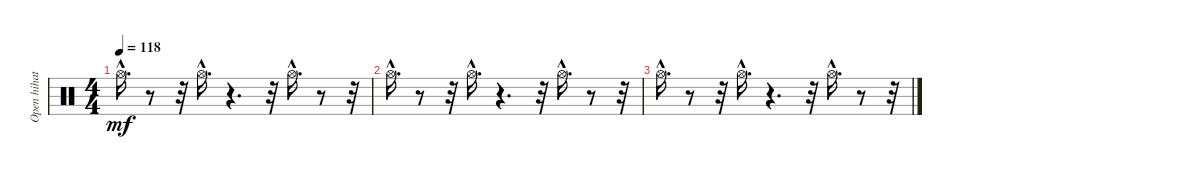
\track ("Open hihat          " "Open hihat") {instrument percussion}
\staff {score}
\articulation defaults
\ts (4 4)
\tempo 118
\clef neutral
\ks c "Hi-Hat (open)"{hac}.16{d dy mf}
r.8 r.32 "Hi-Hat (open)"{hac}.16{d} r.4{d} r.32 "Hi-Hat (open)"{hac}.16{d} r.8 r.32 |
"Hi-Hat (open)"{hac}.16{d} r.8 r.32 "Hi-Hat (open)"{hac}.16{d} r.4{d} r.32 "Hi-Hat (open)"{hac}.16{d} r.8 r.32 |
"Hi-Hat (open)"{hac}.16{d} r.8 r.32 "Hi-Hat (open)"{hac}.16{d} r.4{d} r.32 "Hi-Hat (open)"{hac}.16{d} r.8 r.32
